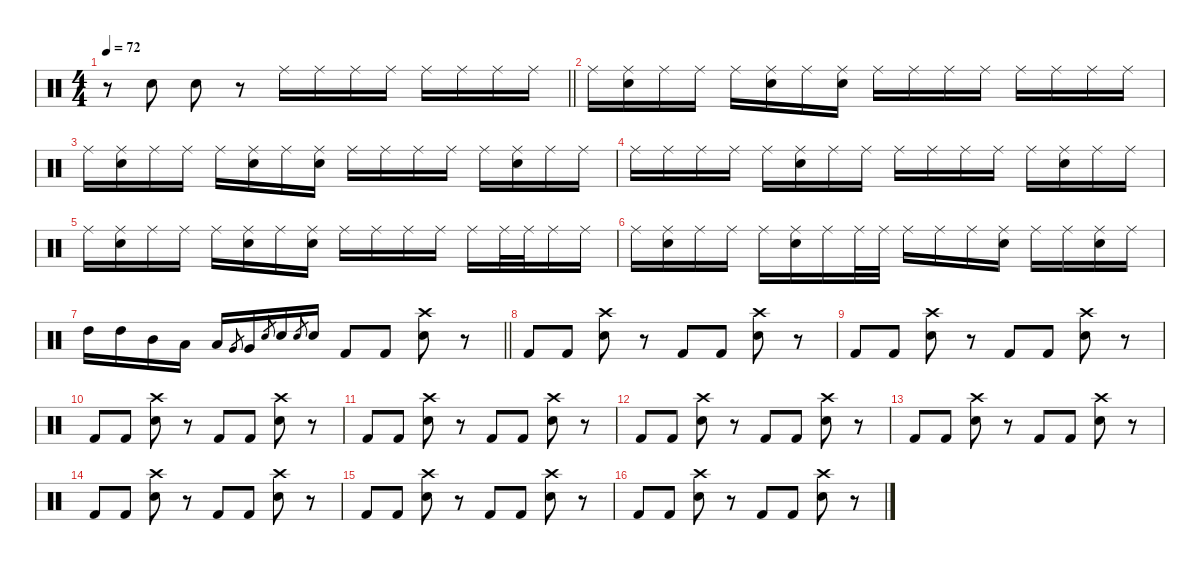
\defaultSystemsLayout 4
\hideDynamics
\bracketExtendMode nobrackets
\singleTrackTrackNamePolicy hidden
\multiTrackTrackNamePolicy hidden
\otherSystemsTrackNameOrientation horizontal
\track ("Drums" "drm.") {instrument percussion}
\staff {score}
\articulation defaults
\ts (4 4)
\tempo 72
\clef neutral
\barLineRight lightlight
\ks c
r.8{dy fff beam Down} "Hand Clap (hit)".8{beam Down} "Hand Clap (hit)".8{beam Down} r.8{beam Down} "Ride (middle)".16{dy f beam Down} "Ride (middle)".16{dy mf beam Down} "Ride (middle)".16{dy mp beam Down} "Ride (middle)".16{dy ff beam Down} "Ride (middle)".16{dy mp beam Down} "Ride (middle)".16{beam Down} "Ride (middle)".16{dy f beam Down} "Ride (middle)".16{dy mp beam Down} |
"Ride (middle)".16{beam Down} ("Snare (hit) 2" "Ride (middle)").16{dy f beam Down} "Ride (middle)".16{dy mp beam Down} "Ride (middle)".16{beam Down} "Ride (middle)".16{dy f beam Down} ("Snare (hit) 2" "Ride (middle)").16{beam Down} "Ride (middle)".16{dy mf beam Down} ("Snare (hit) 2" "Ride (middle)").16{beam Down} "Ride (middle)".16{dy ff beam Down} "Ride (middle)".16{dy mp beam Down} "Ride (middle)".16{dy mf beam Down} "Ride (middle)".16{dy ff beam Down} "Ride (middle)".16{dy mp beam Down} "Ride (middle)".16{beam Down} "Ride (middle)".16{dy f beam Down} "Ride (middle)".16{dy mp beam Down} |
"Ride (middle)".16{dy f beam Down} ("Snare (hit) 2" "Ride (middle)").16{dy mf beam Down} "Ride (middle)".16{dy mp beam Down} "Ride (middle)".16{dy mf beam Down} "Ride (middle)".16{dy f beam Down} ("Snare (hit) 2" "Ride (middle)").16{dy mf beam Down} "Ride (middle)".16{dy ff beam Down} ("Snare (hit) 2" "Ride (middle)").16{dy mf beam Down} "Ride (middle)".16{dy f beam Down} "Ride (middle)".16{dy mp beam Down} "Ride (middle)".16{beam Down} "Ride (middle)".16{dy f beam Down} "Ride (middle)".16{dy mp beam Down} ("Snare (hit) 2" "Ride (middle)").16{dy f beam Down} "Ride (middle)".16{dy ff beam Down} "Ride (middle)".16{dy mf beam Down} |
"Ride (middle)".16{beam Down} "Ride (middle)".16{dy f beam Down} "Ride (middle)".16{dy mp beam Down} "Ride (middle)".16{dy f beam Down} "Ride (middle)".16{beam Down} ("Snare (hit) 2" "Ride (middle)").16{beam Down} "Ride (middle)".16{beam Down} "Ride (middle)".16{beam Down} "Ride (middle)".16{beam Down} "Ride (middle)".16{beam Down} "Ride (middle)".16{beam Down} "Ride (middle)".16{beam Down} "Ride (middle)".16{beam Down} ("Snare (hit) 2" "Ride (middle)").16{dy mf beam Down} "Ride (middle)".16{dy f beam Down} "Ride (middle)".16{beam Down} |
"Ride (middle)".16{beam Down} ("Snare (hit) 2" "Ride (middle)").16{beam Down} "Ride (middle)".16{dy mf beam Down} "Ride (middle)".16{dy ff beam Down} "Ride (middle)".16{dy mf beam Down} ("Snare (hit) 2" "Ride (middle)").16{beam Down} "Ride (middle)".16{dy ff beam Down} ("Snare (hit) 2" "Ride (middle)").16{dy mf beam Down} "Ride (middle)".16{beam Down} "Ride (middle)".16{dy f beam Down} "Ride (middle)".16{beam Down} "Ride (middle)".16{beam Down} "Ride (middle)".16{beam Down} "Ride (middle)".32{beam Down} "Ride (middle)".32{dy ff beam Down} "Ride (middle)".16{dy mp beam Down} "Ride (middle)".16{beam Down} |
"Ride (middle)".16{dy f beam Down} ("Snare (hit) 2" "Ride (middle)").16{beam Down} "Ride (middle)".16{beam Down} "Ride (middle)".16{dy ff beam Down} "Ride (middle)".16{dy f beam Down} ("Snare (hit) 2" "Ride (middle)").16{beam Down} "Ride (middle)".16{beam Down} "Ride (middle)".32{dy ff beam Down} "Ride (middle)".32{dy f beam Down} "Ride (middle)".16{dy mf beam Down} "Ride (middle)".16{dy f beam Down} "Ride (middle)".16{beam Down} ("Snare (hit) 2" "Ride (middle)").16{beam Down} "Ride (middle)".16{beam Down} "Ride (middle)".16{beam Down} ("Snare (hit) 2" "Ride (middle)").16{dy ff beam Down} "Ride (middle)".16{beam Down} |
\barLineRight lightlight "High Tom (hit)".16{beam Down} "High Tom (hit)".16{beam Down} "Mid Tom (hit)".16{dy fff beam Down} "Low Tom (hit)".16{dy ff beam Down} "Low Tom (hit)".16{beam Up} "Very Low Tom (hit)".8{gr dy f beam Up} "Very Low Tom (hit)".16{dy ff beam Up} "Electric Snare (hit)".8{gr dy f beam Up} "Snare (hit) 2".16{dy ff beam Up} "Electric Snare (hit)".8{gr dy f beam Up} "Snare (hit) 2".16{dy ff beam Up} "Kick (hit) 2".8{dy fff beam Up} "Kick (hit) 2".8{beam Up}
("Snare (hit) 2" "Crash high (hit)").8{beam Down} r.8{beam Down} |
"Kick (hit) 2".8{dy f beam Up} "Kick (hit) 2".8{dy fff beam Up} ("Snare (hit) 2" "Crash high (hit)").8{beam Down} r.8{beam Down} "Kick (hit) 2".8{beam Up} "Kick (hit) 2".8{beam Up} ("Snare (hit) 2" "Crash high (hit)").8{beam Down} r.8{beam Down} |
"Kick (hit) 2".8{dy f beam Up} "Kick (hit) 2".8{dy fff beam Up} ("Snare (hit) 2" "Crash high (hit)").8{beam Down} r.8{beam Down} "Kick (hit) 2".8{beam Up} "Kick (hit) 2".8{beam Up} ("Snare (hit) 2" "Crash high (hit)").8{beam Down} r.8{beam Down} |
"Kick (hit) 2".8{dy f beam Up} "Kick (hit) 2".8{dy fff beam Up} ("Snare (hit) 2" "Crash high (hit)").8{beam Down} r.8{beam Down} "Kick (hit) 2".8{beam Up} "Kick (hit) 2".8{beam Up} ("Snare (hit) 2" "Crash high (hit)").8{beam Down} r.8{beam Down} |
"Kick (hit) 2".8{dy f beam Up} "Kick (hit) 2".8{dy fff beam Up} ("Snare (hit) 2" "Crash high (hit)").8{beam Down} r.8{beam Down} "Kick (hit) 2".8{beam Up} "Kick (hit) 2".8{beam Up} ("Snare (hit) 2" "Crash high (hit)").8{beam Down} r.8{beam Down} |
"Kick (hit) 2".8{dy f beam Up} "Kick (hit) 2".8{dy fff beam Up} ("Snare (hit) 2" "Crash high (hit)").8{beam Down} r.8{beam Down} "Kick (hit) 2".8{beam Up} "Kick (hit) 2".8{beam Up} ("Snare (hit) 2" "Crash high (hit)").8{beam Down} r.8{beam Down} |
"Kick (hit) 2".8{dy f beam Up} "Kick (hit) 2".8{dy fff beam Up} ("Snare (hit) 2" "Crash high (hit)").8{beam Down} r.8{beam Down} "Kick (hit) 2".8{beam Up} "Kick (hit) 2".8{beam Up} ("Snare (hit) 2" "Crash high (hit)").8{beam Down} r.8{beam Down} |
"Kick (hit) 2".8{dy f beam Up} "Kick (hit) 2".8{dy fff beam Up} ("Snare (hit) 2" "Crash high (hit)").8{beam Down} r.8{beam Down} "Kick (hit) 2".8{beam Up} "Kick (hit) 2".8{beam Up} ("Snare (hit) 2" "Crash high (hit)").8{beam Down} r.8{beam Down} |
"Kick (hit) 2".8{dy f beam Up} "Kick (hit) 2".8{dy fff beam Up} ("Snare (hit) 2" "Crash high (hit)").8{beam Down} r.8{beam Down} "Kick (hit) 2".8{beam Up} "Kick (hit) 2".8{beam Up} ("Snare (hit) 2" "Crash high (hit)").8{beam Down} r.8{beam Down} |
"Kick (hit) 2".8{dy f beam Up} "Kick (hit) 2".8{dy fff beam Up} ("Snare (hit) 2" "Crash high (hit)").8{beam Down} r.8{beam Down} "Kick (hit) 2".8{beam Up} "Kick (hit) 2".8{beam Up} ("Snare (hit) 2" "Crash high (hit)").8{beam Down} r.8{beam Down}
